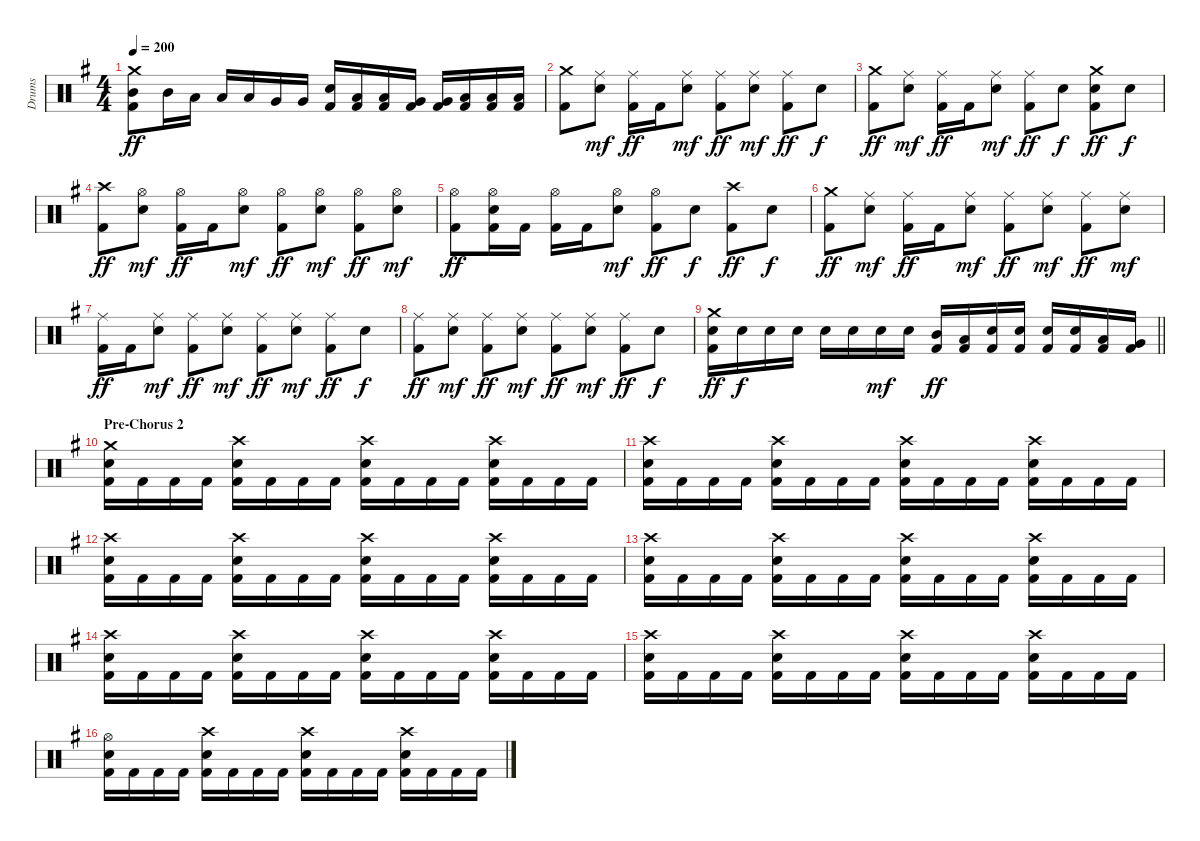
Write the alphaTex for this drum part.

\track ("Drums" "Drums") {instrument percussion}
\staff {score}
\articulation defaults
\ts (4 4)
\tempo 200
\clef neutral
\ks g
("Crash medium (hit)" "Mid Tom (hit)" "Kick (hit) 2").8{dy ff} "Mid Tom (hit)".16 "Low Tom (hit)".16 "Low Tom (hit)".16 "Low Tom (hit)".16 "Very Low Tom (hit)".16 "Very Low Tom (hit)".16 ("Snare (hit) 2" "Kick (hit) 2").16 ("Low Tom (hit)" "Kick (hit) 2").16 ("Low Tom (hit)" "Kick (hit) 2").16 ("Very Low Tom (hit)" "Kick (hit) 2").16 ("Very Low Tom (hit)" "Kick (hit) 2").16 ("Low Floor Tom (hit)" "Kick (hit) 2").16 ("Low Floor Tom (hit)" "Kick (hit) 2").16 ("Low Floor Tom (hit)" "Kick (hit) 2").16 |
("Crash medium (hit)" "Kick (hit) 2").8 ("Ride (middle)" "Snare (hit) 2").8{dy mf} ("Ride (middle)" "Kick (hit) 2").16{dy ff} "Kick (hit) 2".16 ("Ride (middle)" "Snare (hit) 2").8{dy mf} ("Ride (middle)" "Kick (hit) 2").8{dy ff} ("Ride (middle)" "Snare (hit) 2").8{dy mf} ("Ride (middle)" "Kick (hit) 2").8{dy ff} "Snare (hit) 2".8{dy f} |
("Crash medium (hit)" "Kick (hit) 2").8{dy ff} ("Ride (middle)" "Snare (hit) 2").8{dy mf} ("Ride (middle)" "Kick (hit) 2").16{dy ff} "Kick (hit) 2".16 ("Ride (middle)" "Snare (hit) 2").8{dy mf} ("Ride (middle)" "Kick (hit) 2").8{dy ff} "Snare (hit) 2".8{dy f} ("Crash medium (hit)" "Snare (hit) 2" "Kick (hit) 2").8{dy ff} "Snare (hit) 2".8{dy f} |
("Crash high (hit)" "Kick (hit) 2").8{dy ff} ("Hi-Hat (open)" "Snare (hit) 2").8{dy mf} ("Hi-Hat (open)" "Kick (hit) 2").16{dy ff} "Kick (hit) 2".16 ("Hi-Hat (open)" "Snare (hit) 2").8{dy mf} ("Hi-Hat (open)" "Kick (hit) 2").8{dy ff} ("Hi-Hat (open)" "Snare (hit) 2").8{dy mf} ("Hi-Hat (open)" "Kick (hit) 2").8{dy ff} ("Hi-Hat (open)" "Snare (hit) 2").8{dy mf} |
("Hi-Hat (open)" "Kick (hit) 2").8{dy ff} ("Hi-Hat (open)" "Snare (hit) 2" "Kick (hit) 2").16 "Kick (hit) 2".16 ("Hi-Hat (open)" "Kick (hit) 2").16 "Kick (hit) 2".16 ("Hi-Hat (open)" "Snare (hit) 2").8{dy mf} ("Hi-Hat (open)" "Kick (hit) 2").8{dy ff} "Snare (hit) 2".8{dy f} ("Crash high (hit)" "Kick (hit) 2").8{dy ff} "Snare (hit) 2".8{dy f} |
("Crash medium (hit)" "Kick (hit) 2").8{dy ff} ("Ride (middle)" "Snare (hit) 2").8{dy mf} ("Ride (middle)" "Kick (hit) 2").16{dy ff} "Kick (hit) 2".16 ("Ride (middle)" "Snare (hit) 2").8{dy mf} ("Ride (middle)" "Kick (hit) 2").8{dy ff} ("Ride (middle)" "Snare (hit) 2").8{dy mf} ("Ride (middle)" "Kick (hit) 2").8{dy ff} ("Ride (middle)" "Snare (hit) 2").8{dy mf} |
("Ride (middle)" "Kick (hit) 2").16{dy ff} "Kick (hit) 2".16 ("Ride (middle)" "Snare (hit) 2").8{dy mf} ("Ride (middle)" "Kick (hit) 2").8{dy ff} ("Ride (middle)" "Snare (hit) 2").8{dy mf} ("Ride (middle)" "Kick (hit) 2").8{dy ff} ("Ride (middle)" "Snare (hit) 2").8{dy mf} ("Ride (middle)" "Kick (hit) 2").8{dy ff} "Snare (hit) 2".8{dy f} |
("Ride (middle)" "Kick (hit) 2").8{dy ff} ("Ride (middle)" "Snare (hit) 2").8{dy mf} ("Ride (middle)" "Kick (hit) 2").8{dy ff} ("Ride (middle)" "Snare (hit) 2").8{dy mf} ("Ride (middle)" "Kick (hit) 2").8{dy ff} ("Ride (middle)" "Snare (hit) 2").8{dy mf} ("Ride (middle)" "Kick (hit) 2").8{dy ff} "Snare (hit) 2".8{dy f} |
\barLineRight lightlight
("Crash medium (hit)" "Snare (hit) 2" "Kick (hit) 2").16{dy ff} "Snare (hit) 2".16{dy f} "Snare (hit) 2".16 "Snare (hit) 2".16 "Snare (hit) 2".16 "Snare (hit) 2".16 "Snare (hit) 2".16{dy mf} "Snare (hit) 2".16 ("Mid Tom (hit)" "Kick (hit) 2").16{dy ff} ("Low Tom (hit)" "Kick (hit) 2").16 ("Snare (hit) 2" "Kick (hit) 2").16 ("Snare (hit) 2" "Kick (hit) 2").16 ("Snare (hit) 2" "Kick (hit) 2").16 ("Snare (hit) 2" "Kick (hit) 2").16 ("Low Tom (hit)" "Kick (hit) 2").16 ("Very Low Tom (hit)" "Kick (hit) 2").16 |
\section ("" "Pre-Chorus 2")
("Crash medium (hit)" "Snare (hit) 2" "Kick (hit) 2").16 "Kick (hit) 2".16 "Kick (hit) 2".16 "Kick (hit) 2".16 ("Crash high (hit)" "Snare (hit) 2" "Kick (hit) 2").16 "Kick (hit) 2".16 "Kick (hit) 2".16 "Kick (hit) 2".16 ("Crash high (hit)" "Snare (hit) 2" "Kick (hit) 2").16 "Kick (hit) 2".16 "Kick (hit) 2".16 "Kick (hit) 2".16 ("Crash high (hit)" "Snare (hit) 2" "Kick (hit) 2").16 "Kick (hit) 2".16 "Kick (hit) 2".16 "Kick (hit) 2".16 |
("Crash high (hit)" "Snare (hit) 2" "Kick (hit) 2").16 "Kick (hit) 2".16 "Kick (hit) 2".16 "Kick (hit) 2".16 ("Crash high (hit)" "Snare (hit) 2" "Kick (hit) 2").16 "Kick (hit) 2".16 "Kick (hit) 2".16 "Kick (hit) 2".16 ("Crash high (hit)" "Snare (hit) 2" "Kick (hit) 2").16 "Kick (hit) 2".16 "Kick (hit) 2".16 "Kick (hit) 2".16 ("Crash high (hit)" "Snare (hit) 2" "Kick (hit) 2").16 "Kick (hit) 2".16 "Kick (hit) 2".16 "Kick (hit) 2".16 |
("Crash high (hit)" "Snare (hit) 2" "Kick (hit) 2").16 "Kick (hit) 2".16 "Kick (hit) 2".16 "Kick (hit) 2".16 ("Crash high (hit)" "Snare (hit) 2" "Kick (hit) 2").16 "Kick (hit) 2".16 "Kick (hit) 2".16 "Kick (hit) 2".16 ("Crash high (hit)" "Snare (hit) 2" "Kick (hit) 2").16 "Kick (hit) 2".16 "Kick (hit) 2".16 "Kick (hit) 2".16 ("Crash high (hit)" "Snare (hit) 2" "Kick (hit) 2").16 "Kick (hit) 2".16 "Kick (hit) 2".16 "Kick (hit) 2".16 |
("Crash high (hit)" "Snare (hit) 2" "Kick (hit) 2").16 "Kick (hit) 2".16 "Kick (hit) 2".16 "Kick (hit) 2".16 ("Crash high (hit)" "Snare (hit) 2" "Kick (hit) 2").16 "Kick (hit) 2".16 "Kick (hit) 2".16 "Kick (hit) 2".16 ("Crash high (hit)" "Snare (hit) 2" "Kick (hit) 2").16 "Kick (hit) 2".16 "Kick (hit) 2".16 "Kick (hit) 2".16 ("Crash high (hit)" "Snare (hit) 2" "Kick (hit) 2").16 "Kick (hit) 2".16 "Kick (hit) 2".16 "Kick (hit) 2".16 |
("Crash high (hit)" "Snare (hit) 2" "Kick (hit) 2").16 "Kick (hit) 2".16 "Kick (hit) 2".16 "Kick (hit) 2".16 ("Crash high (hit)" "Snare (hit) 2" "Kick (hit) 2").16 "Kick (hit) 2".16 "Kick (hit) 2".16 "Kick (hit) 2".16 ("Crash high (hit)" "Snare (hit) 2" "Kick (hit) 2").16 "Kick (hit) 2".16 "Kick (hit) 2".16 "Kick (hit) 2".16 ("Crash high (hit)" "Snare (hit) 2" "Kick (hit) 2").16 "Kick (hit) 2".16 "Kick (hit) 2".16 "Kick (hit) 2".16 |
("Crash high (hit)" "Snare (hit) 2" "Kick (hit) 2").16 "Kick (hit) 2".16 "Kick (hit) 2".16 "Kick (hit) 2".16 ("Crash high (hit)" "Snare (hit) 2" "Kick (hit) 2").16 "Kick (hit) 2".16 "Kick (hit) 2".16 "Kick (hit) 2".16 ("Crash high (hit)" "Snare (hit) 2" "Kick (hit) 2").16 "Kick (hit) 2".16 "Kick (hit) 2".16 "Kick (hit) 2".16 ("Crash high (hit)" "Snare (hit) 2" "Kick (hit) 2").16 "Kick (hit) 2".16 "Kick (hit) 2".16 "Kick (hit) 2".16 |
("Hi-Hat (open)" "Snare (hit) 2" "Kick (hit) 2").16 "Kick (hit) 2".16 "Kick (hit) 2".16 "Kick (hit) 2".16 ("Crash high (hit)" "Snare (hit) 2" "Kick (hit) 2").16 "Kick (hit) 2".16 "Kick (hit) 2".16 "Kick (hit) 2".16 ("Crash high (hit)" "Snare (hit) 2" "Kick (hit) 2").16 "Kick (hit) 2".16 "Kick (hit) 2".16 "Kick (hit) 2".16 ("Crash high (hit)" "Snare (hit) 2" "Kick (hit) 2").16 "Kick (hit) 2".16 "Kick (hit) 2".16 "Kick (hit) 2".16
